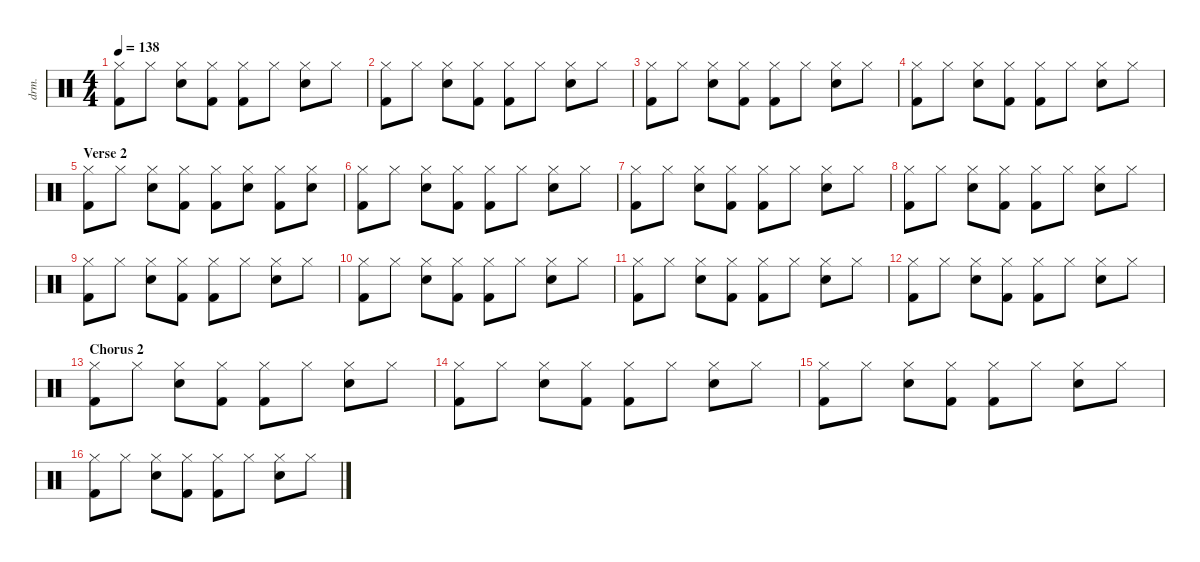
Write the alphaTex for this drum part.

\defaultSystemsLayout 4
\hideDynamics
\bracketExtendMode nobrackets
\otherSystemsTrackNameOrientation horizontal
\track ("Drums (Don Henley)" "drm.") {instrument percussion}
\staff {score}
\articulation defaults
\ts (4 4)
\tempo 138
\clef neutral
\ks c
("Hi-Hat (closed)" "Kick (hit) 2").8{dy f} "Hi-Hat (closed)".8 ("Hi-Hat (closed)" "Snare (hit) 2").8 ("Hi-Hat (closed)" "Kick (hit) 2").8 ("Hi-Hat (closed)" "Kick (hit) 2").8 "Hi-Hat (closed)".8 ("Hi-Hat (closed)" "Snare (hit) 2").8 "Hi-Hat (closed)".8 |
("Hi-Hat (closed)" "Kick (hit) 2").8 "Hi-Hat (closed)".8 ("Hi-Hat (closed)" "Snare (hit) 2").8 ("Hi-Hat (closed)" "Kick (hit) 2").8 ("Hi-Hat (closed)" "Kick (hit) 2").8 "Hi-Hat (closed)".8 ("Hi-Hat (closed)" "Snare (hit) 2").8 "Hi-Hat (closed)".8 |
("Hi-Hat (closed)" "Kick (hit) 2").8 "Hi-Hat (closed)".8 ("Hi-Hat (closed)" "Snare (hit) 2").8 ("Hi-Hat (closed)" "Kick (hit) 2").8 ("Hi-Hat (closed)" "Kick (hit) 2").8 "Hi-Hat (closed)".8 ("Hi-Hat (closed)" "Snare (hit) 2").8 "Hi-Hat (closed)".8 |
("Hi-Hat (closed)" "Kick (hit) 2").8 "Hi-Hat (closed)".8 ("Hi-Hat (closed)" "Snare (hit) 2").8 ("Hi-Hat (closed)" "Kick (hit) 2").8 ("Hi-Hat (closed)" "Kick (hit) 2").8 "Hi-Hat (closed)".8 ("Hi-Hat (closed)" "Snare (hit) 2").8 "Hi-Hat (closed)".8 |
\section ("" "Verse 2")
("Hi-Hat (closed)" "Kick (hit) 2").8 "Hi-Hat (closed)".8 ("Hi-Hat (closed)" "Snare (hit) 2").8 ("Hi-Hat (closed)" "Kick (hit) 2").8 ("Hi-Hat (closed)" "Kick (hit) 2").8 ("Hi-Hat (closed)" "Snare (hit) 2").8 ("Hi-Hat (closed)" "Kick (hit) 2").8 ("Hi-Hat (closed)" "Snare (hit) 2").8 |
("Hi-Hat (closed)" "Kick (hit) 2").8 "Hi-Hat (closed)".8 ("Hi-Hat (closed)" "Snare (hit) 2").8 ("Hi-Hat (closed)" "Kick (hit) 2").8 ("Hi-Hat (closed)" "Kick (hit) 2").8 "Hi-Hat (closed)".8 ("Hi-Hat (closed)" "Snare (hit) 2").8 "Hi-Hat (closed)".8 |
("Hi-Hat (closed)" "Kick (hit) 2").8 "Hi-Hat (closed)".8 ("Hi-Hat (closed)" "Snare (hit) 2").8 ("Hi-Hat (closed)" "Kick (hit) 2").8 ("Hi-Hat (closed)" "Kick (hit) 2").8 "Hi-Hat (closed)".8 ("Hi-Hat (closed)" "Snare (hit) 2").8 "Hi-Hat (closed)".8 |
("Hi-Hat (closed)" "Kick (hit) 2").8 "Hi-Hat (closed)".8 ("Hi-Hat (closed)" "Snare (hit) 2").8 ("Hi-Hat (closed)" "Kick (hit) 2").8 ("Hi-Hat (closed)" "Kick (hit) 2").8 "Hi-Hat (closed)".8 ("Hi-Hat (closed)" "Snare (hit) 2").8 "Hi-Hat (closed)".8 |
("Hi-Hat (closed)" "Kick (hit) 2").8 "Hi-Hat (closed)".8 ("Hi-Hat (closed)" "Snare (hit) 2").8 ("Hi-Hat (closed)" "Kick (hit) 2").8 ("Hi-Hat (closed)" "Kick (hit) 2").8 "Hi-Hat (closed)".8 ("Hi-Hat (closed)" "Snare (hit) 2").8 "Hi-Hat (closed)".8 |
("Hi-Hat (closed)" "Kick (hit) 2").8 "Hi-Hat (closed)".8 ("Hi-Hat (closed)" "Snare (hit) 2").8 ("Hi-Hat (closed)" "Kick (hit) 2").8 ("Hi-Hat (closed)" "Kick (hit) 2").8 "Hi-Hat (closed)".8 ("Hi-Hat (closed)" "Snare (hit) 2").8 "Hi-Hat (closed)".8 |
("Hi-Hat (closed)" "Kick (hit) 2").8 "Hi-Hat (closed)".8 ("Hi-Hat (closed)" "Snare (hit) 2").8 ("Hi-Hat (closed)" "Kick (hit) 2").8 ("Hi-Hat (closed)" "Kick (hit) 2").8 "Hi-Hat (closed)".8 ("Hi-Hat (closed)" "Snare (hit) 2").8 "Hi-Hat (closed)".8 |
("Hi-Hat (closed)" "Kick (hit) 2").8 "Hi-Hat (closed)".8 ("Hi-Hat (closed)" "Snare (hit) 2").8 ("Hi-Hat (closed)" "Kick (hit) 2").8 ("Hi-Hat (closed)" "Kick (hit) 2").8 "Hi-Hat (closed)".8 ("Hi-Hat (closed)" "Snare (hit) 2").8 "Hi-Hat (closed)".8 |
\section ("" "Chorus 2")
("Hi-Hat (closed)" "Kick (hit) 2").8 "Hi-Hat (closed)".8 ("Hi-Hat (closed)" "Snare (hit) 2").8 ("Hi-Hat (closed)" "Kick (hit) 2").8 ("Hi-Hat (closed)" "Kick (hit) 2").8 "Hi-Hat (closed)".8 ("Hi-Hat (closed)" "Snare (hit) 2").8 "Hi-Hat (closed)".8 |
("Hi-Hat (closed)" "Kick (hit) 2").8 "Hi-Hat (closed)".8 ("Hi-Hat (closed)" "Snare (hit) 2").8 ("Hi-Hat (closed)" "Kick (hit) 2").8 ("Hi-Hat (closed)" "Kick (hit) 2").8 "Hi-Hat (closed)".8 ("Hi-Hat (closed)" "Snare (hit) 2").8 "Hi-Hat (closed)".8 |
("Hi-Hat (closed)" "Kick (hit) 2").8 "Hi-Hat (closed)".8 ("Hi-Hat (closed)" "Snare (hit) 2").8 ("Hi-Hat (closed)" "Kick (hit) 2").8 ("Hi-Hat (closed)" "Kick (hit) 2").8 "Hi-Hat (closed)".8 ("Hi-Hat (closed)" "Snare (hit) 2").8 "Hi-Hat (closed)".8 |
("Hi-Hat (closed)" "Kick (hit) 2").8 "Hi-Hat (closed)".8 ("Hi-Hat (closed)" "Snare (hit) 2").8 ("Hi-Hat (closed)" "Kick (hit) 2").8 ("Hi-Hat (closed)" "Kick (hit) 2").8 "Hi-Hat (closed)".8 ("Hi-Hat (closed)" "Snare (hit) 2").8 "Hi-Hat (closed)".8
